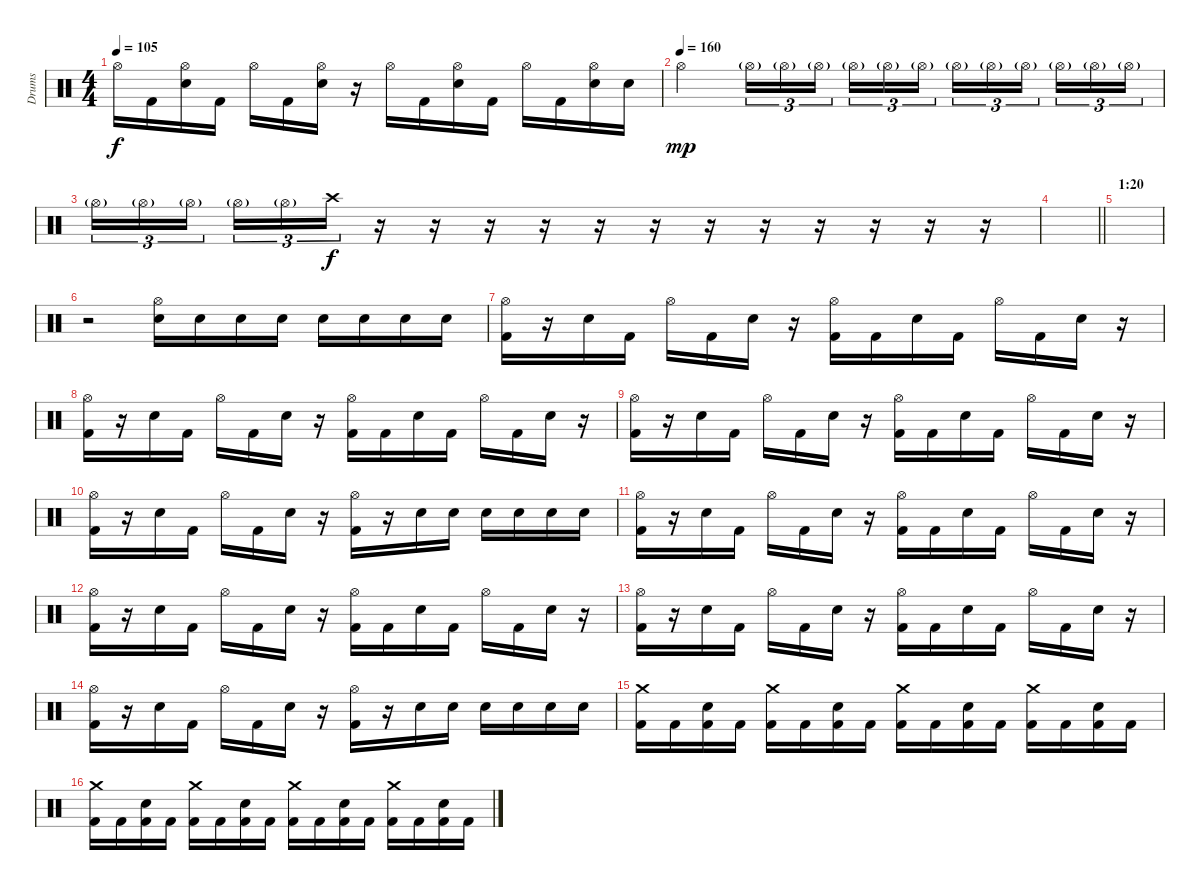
\track ("Drums" "Drums") {instrument percussion}
\staff {score}
\articulation defaults
\ts (4 4)
\tempo 105
\clef neutral
\ks c "Hi-Hat (open)".16{dy f} "Kick (hit) 2".16
("Hi-Hat (open)" "Electric Snare (hit)").16 "Kick (hit) 2".16 "Hi-Hat (open)".16 "Kick (hit) 2".16 ("Hi-Hat (open)" "Electric Snare (hit)").16 r.16 "Hi-Hat (open)".16 "Kick (hit) 2".16 ("Hi-Hat (open)" "Electric Snare (hit)").16 "Kick (hit) 2".16 "Hi-Hat (open)".16 "Kick (hit) 2".16 ("Hi-Hat (open)" "Electric Snare (hit)").16 "Electric Snare (hit)".16 |
\tempo (160)
"Hi-Hat (open)".2{dy mp} "Hi-Hat (open)"{g}.16{tu (3 2)} "Hi-Hat (open)"{g}.16{tu (3 2)} "Hi-Hat (open)"{g}.16{tu (3 2) beam splitsecondary} "Hi-Hat (open)"{g}.16{tu (3 2)} "Hi-Hat (open)"{g}.16{tu (3 2)} "Hi-Hat (open)"{g}.16{tu (3 2)} "Hi-Hat (open)"{g}.16{tu (3 2)} "Hi-Hat (open)"{g}.16{tu (3 2)} "Hi-Hat (open)"{g}.16{tu (3 2) beam splitsecondary} "Hi-Hat (open)"{g}.16{tu (3 2)} "Hi-Hat (open)"{g}.16{tu (3 2)} "Hi-Hat (open)"{g}.16{tu (3 2)} |
"Hi-Hat (open)"{g}.16{tu (3 2)} "Hi-Hat (open)"{g}.16{tu (3 2)} "Hi-Hat (open)"{g}.16{tu (3 2) beam splitsecondary} "Hi-Hat (open)"{g}.16{tu (3 2)} "Hi-Hat (open)"{g}.16{tu (3 2)} "Crash high (hit)".16{tu (3 2) dy f} r.16 r.16 r.16 r.16 r.16 r.16 r.16 r.16 r.16 r.16 r.16 r.16 |
\barLineRight lightlight
|
\section ("" "1:20")
|
r.2 ("Hi-Hat (open)" "Electric Snare (hit)").16 "Electric Snare (hit)".16 "Electric Snare (hit)".16 "Electric Snare (hit)".16 "Electric Snare (hit)".16 "Electric Snare (hit)".16 "Electric Snare (hit)".16 "Electric Snare (hit)".16 |
("Hi-Hat (open)" "Kick (hit) 2").16 r.16 "Electric Snare (hit)".16 "Kick (hit) 2".16 "Hi-Hat (open)".16 "Kick (hit) 2".16 "Electric Snare (hit)".16 r.16 ("Hi-Hat (open)" "Kick (hit) 2").16 "Kick (hit) 2".16 "Electric Snare (hit)".16 "Kick (hit) 2".16 "Hi-Hat (open)".16 "Kick (hit) 2".16 "Electric Snare (hit)".16 r.16 |
("Hi-Hat (open)" "Kick (hit) 2").16 r.16 "Electric Snare (hit)".16 "Kick (hit) 2".16 "Hi-Hat (open)".16 "Kick (hit) 2".16 "Electric Snare (hit)".16 r.16 ("Hi-Hat (open)" "Kick (hit) 2").16 "Kick (hit) 2".16 "Electric Snare (hit)".16 "Kick (hit) 2".16 "Hi-Hat (open)".16 "Kick (hit) 2".16 "Electric Snare (hit)".16 r.16 |
("Hi-Hat (open)" "Kick (hit) 2").16 r.16 "Electric Snare (hit)".16 "Kick (hit) 2".16 "Hi-Hat (open)".16 "Kick (hit) 2".16 "Electric Snare (hit)".16 r.16 ("Hi-Hat (open)" "Kick (hit) 2").16 "Kick (hit) 2".16 "Electric Snare (hit)".16 "Kick (hit) 2".16 "Hi-Hat (open)".16 "Kick (hit) 2".16 "Electric Snare (hit)".16 r.16 |
("Hi-Hat (open)" "Kick (hit) 2").16 r.16 "Electric Snare (hit)".16 "Kick (hit) 2".16 "Hi-Hat (open)".16 "Kick (hit) 2".16 "Electric Snare (hit)".16 r.16 ("Hi-Hat (open)" "Kick (hit) 2").16 r.16 "Electric Snare (hit)".16 "Electric Snare (hit)".16 "Electric Snare (hit)".16 "Electric Snare (hit)".16 "Electric Snare (hit)".16 "Electric Snare (hit)".16 |
("Hi-Hat (open)" "Kick (hit) 2").16 r.16 "Electric Snare (hit)".16 "Kick (hit) 2".16 "Hi-Hat (open)".16 "Kick (hit) 2".16 "Electric Snare (hit)".16 r.16 ("Hi-Hat (open)" "Kick (hit) 2").16 "Kick (hit) 2".16 "Electric Snare (hit)".16 "Kick (hit) 2".16 "Hi-Hat (open)".16 "Kick (hit) 2".16 "Electric Snare (hit)".16 r.16 |
("Hi-Hat (open)" "Kick (hit) 2").16 r.16 "Electric Snare (hit)".16 "Kick (hit) 2".16 "Hi-Hat (open)".16 "Kick (hit) 2".16 "Electric Snare (hit)".16 r.16 ("Hi-Hat (open)" "Kick (hit) 2").16 "Kick (hit) 2".16 "Electric Snare (hit)".16 "Kick (hit) 2".16 "Hi-Hat (open)".16 "Kick (hit) 2".16 "Electric Snare (hit)".16 r.16 |
("Hi-Hat (open)" "Kick (hit) 2").16 r.16 "Electric Snare (hit)".16 "Kick (hit) 2".16 "Hi-Hat (open)".16 "Kick (hit) 2".16 "Electric Snare (hit)".16 r.16 ("Hi-Hat (open)" "Kick (hit) 2").16 "Kick (hit) 2".16 "Electric Snare (hit)".16 "Kick (hit) 2".16 "Hi-Hat (open)".16 "Kick (hit) 2".16 "Electric Snare (hit)".16 r.16 |
("Hi-Hat (open)" "Kick (hit) 2").16 r.16 "Electric Snare (hit)".16 "Kick (hit) 2".16 "Hi-Hat (open)".16 "Kick (hit) 2".16 "Electric Snare (hit)".16 r.16 ("Hi-Hat (open)" "Kick (hit) 2").16 r.16 "Electric Snare (hit)".16 "Electric Snare (hit)".16 "Electric Snare (hit)".16 "Electric Snare (hit)".16 "Electric Snare (hit)".16 "Electric Snare (hit)".16 |
("Crash medium (hit)" "Kick (hit) 2").16 "Kick (hit) 2".16 ("Electric Snare (hit)" "Kick (hit) 2").16 "Kick (hit) 2".16 ("Crash medium (hit)" "Kick (hit) 2").16 "Kick (hit) 2".16 ("Electric Snare (hit)" "Kick (hit) 2").16 "Kick (hit) 2".16 ("Crash medium (hit)" "Kick (hit) 2").16 "Kick (hit) 2".16 ("Electric Snare (hit)" "Kick (hit) 2").16 "Kick (hit) 2".16 ("Crash medium (hit)" "Kick (hit) 2").16 "Kick (hit) 2".16 ("Electric Snare (hit)" "Kick (hit) 2").16 "Kick (hit) 2".16 |
("Crash medium (hit)" "Kick (hit) 2").16 "Kick (hit) 2".16 ("Electric Snare (hit)" "Kick (hit) 2").16 "Kick (hit) 2".16 ("Crash medium (hit)" "Kick (hit) 2").16 "Kick (hit) 2".16 ("Electric Snare (hit)" "Kick (hit) 2").16 "Kick (hit) 2".16 ("Crash medium (hit)" "Kick (hit) 2").16 "Kick (hit) 2".16 ("Electric Snare (hit)" "Kick (hit) 2").16 "Kick (hit) 2".16 ("Crash medium (hit)" "Kick (hit) 2").16 "Kick (hit) 2".16 ("Electric Snare (hit)" "Kick (hit) 2").16 "Kick (hit) 2".16
